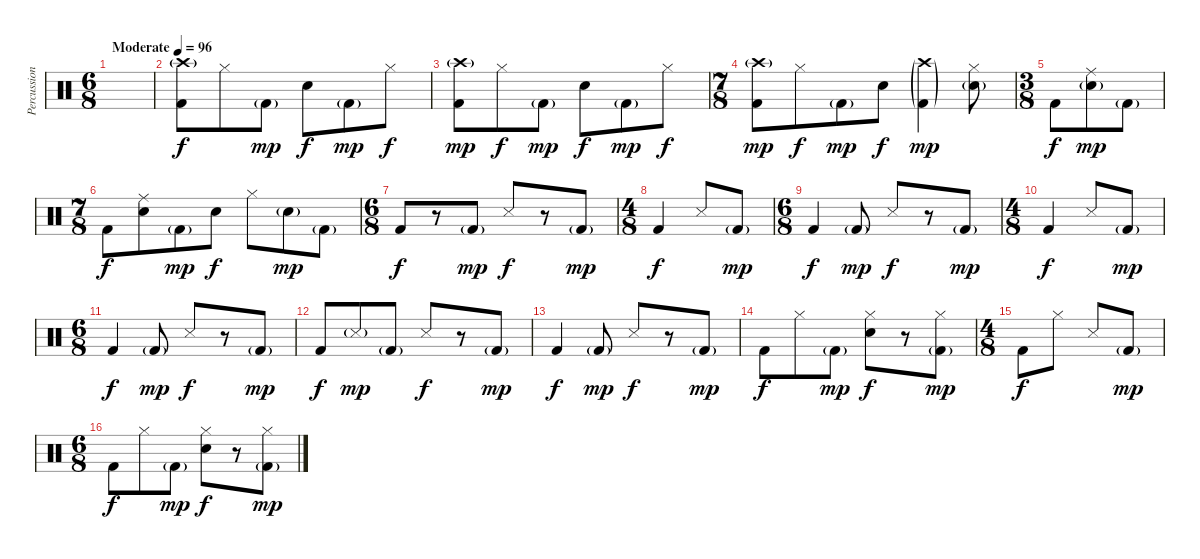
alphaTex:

\track ("Percussion" "Percussion") {instrument percussion}
\staff {score}
\articulation defaults
\ts (6 8)
\tempo (96 "Moderate")
\clef neutral
\ks c
|
("Crash high (hit)"{g} "Kick (hit) 2").8 "Hi-Hat (closed)".8{dy f} "Kick (hit) 2"{g}.8{dy mp} "Snare (hit) 2".8{dy f} "Kick (hit) 2"{g}.8{dy mp} "Hi-Hat (closed)".8{dy f} |
("Crash high (hit)"{g} "Kick (hit) 2").8{dy mp} "Hi-Hat (closed)".8{dy f} "Kick (hit) 2"{g}.8{dy mp} "Snare (hit) 2".8{dy f} "Kick (hit) 2"{g}.8{dy mp} "Hi-Hat (closed)".8{dy f} |
\ts (7 8)
("Crash high (hit)"{g} "Kick (hit) 2").8{dy mp} "Hi-Hat (closed)".8{dy f} "Kick (hit) 2"{g}.8{dy mp} "Snare (hit) 2".8{dy f} ("Crash high (hit)"{g} "Kick (hit) 2"{g}).4{dy mp} ("Snare (hit) 2"{g} "Hi-Hat (closed)").8 |
\ts (3 8)
"Kick (hit) 2".8{dy f} ("Ride (middle)" "Snare (hit) 2"{g}).8{dy mp} "Kick (hit) 2"{g}.8 |
\ts (7 8)
"Kick (hit) 2".8{dy f} ("Ride (middle)" "Snare (hit) 2").8 "Kick (hit) 2"{g}.8{dy mp} "Snare (hit) 2".8{dy f} "Hi-Hat (closed)".8 "Snare (hit) 2"{g}.8{dy mp} "Kick (hit) 2"{g}.8 |
\ts (6 8)
"Kick (hit) 2".8{dy f} r.8 "Kick (hit) 2"{g}.8{dy mp} "Snare (side stick) 3".8{dy f} r.8 "Kick (hit) 2"{g}.8{dy mp} |
\ts (4 8)
"Kick (hit) 2".4{dy f} "Snare (side stick) 3".8 "Kick (hit) 2"{g}.8{dy mp} |
\ts (6 8)
"Kick (hit) 2".4{dy f} "Kick (hit) 2"{g}.8{dy mp} "Snare (side stick) 3".8{dy f} r.8 "Kick (hit) 2"{g}.8{dy mp} |
\ts (4 8)
"Kick (hit) 2".4{dy f} "Snare (side stick) 3".8 "Kick (hit) 2"{g}.8{dy mp} |
\ts (6 8)
"Kick (hit) 2".4{dy f} "Kick (hit) 2"{g}.8{dy mp} "Snare (side stick) 3".8{dy f} r.8 "Kick (hit) 2"{g}.8{dy mp} |
"Kick (hit) 2".8{dy f} "Snare (side stick) 3"{g}.8{dy mp} "Kick (hit) 2"{g}.8 "Snare (side stick) 3".8{dy f} r.8 "Kick (hit) 2"{g}.8{dy mp} |
"Kick (hit) 2".4{dy f} "Kick (hit) 2"{g}.8{dy mp} "Snare (side stick) 3".8{dy f} r.8 "Kick (hit) 2"{g}.8{dy mp} |
"Kick (hit) 2".8{dy f} "Hi-Hat (closed)".8 "Kick (hit) 2"{g}.8{dy mp} ("Snare (hit) 2" "Hi-Hat (closed)").8{dy f} r.8 ("Hi-Hat (closed)" "Kick (hit) 2"{g}).8{dy mp} |
\ts (4 8)
"Kick (hit) 2".8{dy f} "Hi-Hat (closed)".8 "Snare (side stick) 3".8 "Kick (hit) 2"{g}.8{dy mp} |
\ts (6 8)
"Kick (hit) 2".8{dy f} "Hi-Hat (closed)".8 "Kick (hit) 2"{g}.8{dy mp} ("Snare (hit) 2" "Hi-Hat (closed)").8{dy f} r.8 ("Hi-Hat (closed)" "Kick (hit) 2"{g}).8{dy mp}
